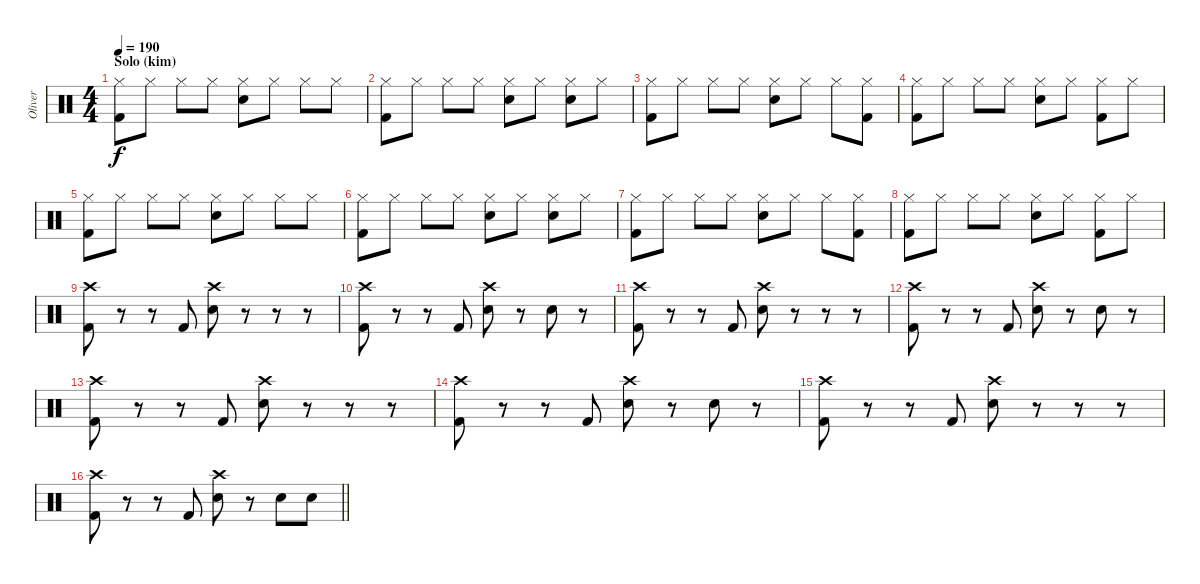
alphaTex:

\track ("Oliver" "Oliver") {instrument percussion}
\staff {score}
\articulation defaults
\ts (4 4)
\section ("" "Solo (kim)")
\tempo 190
\clef neutral
\ks c
("Hi-Hat (closed)" "Kick (hit) 2").8{dy f} "Hi-Hat (closed)".8 "Hi-Hat (closed)".8 "Hi-Hat (closed)".8 ("Hi-Hat (closed)" "Snare (hit) 2").8 "Hi-Hat (closed)".8 "Hi-Hat (closed)".8 "Hi-Hat (closed)".8 |
("Hi-Hat (closed)" "Kick (hit) 2").8 "Hi-Hat (closed)".8 "Hi-Hat (closed)".8 "Hi-Hat (closed)".8 ("Hi-Hat (closed)" "Snare (hit) 2").8 "Hi-Hat (closed)".8 ("Hi-Hat (closed)" "Snare (hit) 2").8 "Hi-Hat (closed)".8 |
("Hi-Hat (closed)" "Kick (hit) 2").8 "Hi-Hat (closed)".8 "Hi-Hat (closed)".8 "Hi-Hat (closed)".8 ("Hi-Hat (closed)" "Snare (hit) 2").8 "Hi-Hat (closed)".8 "Hi-Hat (closed)".8 ("Hi-Hat (closed)" "Kick (hit) 2").8 |
("Hi-Hat (closed)" "Kick (hit) 2").8 "Hi-Hat (closed)".8 "Hi-Hat (closed)".8 "Hi-Hat (closed)".8 ("Hi-Hat (closed)" "Snare (hit) 2").8 "Hi-Hat (closed)".8 ("Hi-Hat (closed)" "Kick (hit) 2").8 "Hi-Hat (closed)".8 |
("Hi-Hat (closed)" "Kick (hit) 2").8 "Hi-Hat (closed)".8 "Hi-Hat (closed)".8 "Hi-Hat (closed)".8 ("Hi-Hat (closed)" "Snare (hit) 2").8 "Hi-Hat (closed)".8 "Hi-Hat (closed)".8 "Hi-Hat (closed)".8 |
("Hi-Hat (closed)" "Kick (hit) 2").8 "Hi-Hat (closed)".8 "Hi-Hat (closed)".8 "Hi-Hat (closed)".8 ("Hi-Hat (closed)" "Snare (hit) 2").8 "Hi-Hat (closed)".8 ("Hi-Hat (closed)" "Snare (hit) 2").8 "Hi-Hat (closed)".8 |
("Hi-Hat (closed)" "Kick (hit) 2").8 "Hi-Hat (closed)".8 "Hi-Hat (closed)".8 "Hi-Hat (closed)".8 ("Hi-Hat (closed)" "Snare (hit) 2").8 "Hi-Hat (closed)".8 "Hi-Hat (closed)".8 ("Hi-Hat (closed)" "Kick (hit) 2").8 |
("Hi-Hat (closed)" "Kick (hit) 2").8 "Hi-Hat (closed)".8 "Hi-Hat (closed)".8 "Hi-Hat (closed)".8 ("Hi-Hat (closed)" "Snare (hit) 2").8 "Hi-Hat (closed)".8 ("Hi-Hat (closed)" "Kick (hit) 2").8 "Hi-Hat (closed)".8 |
("Crash high (hit)" "Kick (hit) 2").8 r.8 r.8 "Kick (hit) 2".8 ("Crash high (hit)" "Snare (hit) 2").8 r.8 r.8 r.8 |
("Crash high (hit)" "Kick (hit) 2").8 r.8 r.8 "Kick (hit) 2".8 ("Crash high (hit)" "Snare (hit) 2").8 r.8 "Snare (hit) 2".8 r.8 |
("Crash high (hit)" "Kick (hit) 2").8 r.8 r.8 "Kick (hit) 2".8 ("Crash high (hit)" "Snare (hit) 2").8 r.8 r.8 r.8 |
("Crash high (hit)" "Kick (hit) 2").8 r.8 r.8 "Kick (hit) 2".8 ("Crash high (hit)" "Snare (hit) 2").8 r.8 "Snare (hit) 2".8 r.8 |
("Crash high (hit)" "Kick (hit) 2").8 r.8 r.8 "Kick (hit) 2".8 ("Crash high (hit)" "Snare (hit) 2").8 r.8 r.8 r.8 |
("Crash high (hit)" "Kick (hit) 2").8 r.8 r.8 "Kick (hit) 2".8 ("Crash high (hit)" "Snare (hit) 2").8 r.8 "Snare (hit) 2".8 r.8 |
("Crash high (hit)" "Kick (hit) 2").8 r.8 r.8 "Kick (hit) 2".8 ("Crash high (hit)" "Snare (hit) 2").8 r.8 r.8 r.8 |
\barLineRight lightlight
("Crash high (hit)" "Kick (hit) 2").8 r.8 r.8 "Kick (hit) 2".8 ("Crash high (hit)" "Snare (hit) 2").8 r.8 "Snare (hit) 2".8 "Snare (hit) 2".8
